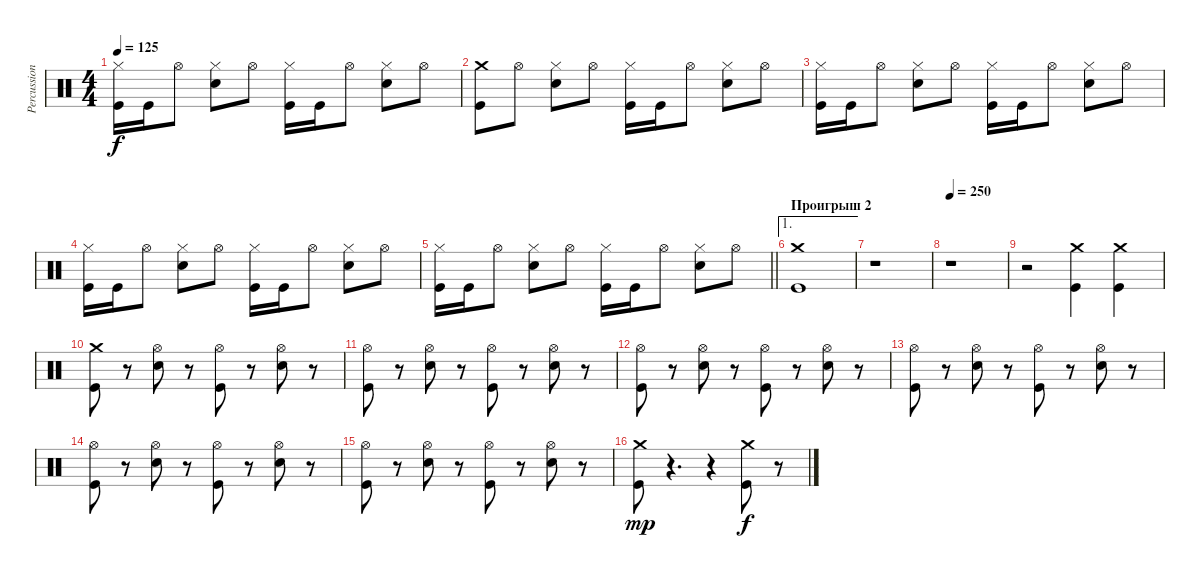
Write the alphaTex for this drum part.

\track ("Percussion" "Percussion") {instrument percussion}
\staff {score}
\articulation defaults
\ts (4 4)
\tempo 125
\clef neutral
\ks c
("Hi-Hat (closed)" "Kick (hit)").16{dy f} "Kick (hit)".16 "Hi-Hat (open)".8 ("Hi-Hat (closed)" "Electric Snare (hit)").8 "Hi-Hat (open)".8 ("Hi-Hat (closed)" "Kick (hit)").16 "Kick (hit)".16 "Hi-Hat (open)".8 ("Hi-Hat (closed)" "Electric Snare (hit)").8 "Hi-Hat (open)".8 |
("Crash medium (hit)" "Kick (hit)").8 "Hi-Hat (open)".8 ("Hi-Hat (closed)" "Electric Snare (hit)").8 "Hi-Hat (open)".8 ("Hi-Hat (closed)" "Kick (hit)").16 "Kick (hit)".16 "Hi-Hat (open)".8 ("Hi-Hat (closed)" "Electric Snare (hit)").8 "Hi-Hat (open)".8 |
("Hi-Hat (closed)" "Kick (hit)").16 "Kick (hit)".16 "Hi-Hat (open)".8 ("Hi-Hat (closed)" "Electric Snare (hit)").8 "Hi-Hat (open)".8 ("Hi-Hat (closed)" "Kick (hit)").16 "Kick (hit)".16 "Hi-Hat (open)".8 ("Hi-Hat (closed)" "Electric Snare (hit)").8 "Hi-Hat (open)".8 |
("Hi-Hat (closed)" "Kick (hit)").16 "Kick (hit)".16 "Hi-Hat (open)".8 ("Hi-Hat (closed)" "Electric Snare (hit)").8 "Hi-Hat (open)".8 ("Hi-Hat (closed)" "Kick (hit)").16 "Kick (hit)".16 "Hi-Hat (open)".8 ("Hi-Hat (closed)" "Electric Snare (hit)").8 "Hi-Hat (open)".8 |
\barLineRight lightlight
("Hi-Hat (closed)" "Kick (hit)").16 "Kick (hit)".16 "Hi-Hat (open)".8 ("Hi-Hat (closed)" "Electric Snare (hit)").8 "Hi-Hat (open)".8 ("Hi-Hat (closed)" "Kick (hit)").16 "Kick (hit)".16 "Hi-Hat (open)".8 ("Hi-Hat (closed)" "Electric Snare (hit)").8 "Hi-Hat (open)".8 |
\ae 1
\section ("" "Проигрыш 2")
("Crash medium (hit)" "Kick (hit)").1 |
r.1 |
\tempo 250
r.1 |
r.2 ("Crash medium (hit)" "Kick (hit)").4 ("Crash medium (hit)" "Kick (hit)").4 |
("Crash medium (hit)" "Kick (hit)").8 r.8 ("Hi-Hat (open)" "Electric Snare (hit)").8 r.8 ("Hi-Hat (open)" "Kick (hit)").8 r.8 ("Hi-Hat (open)" "Electric Snare (hit)").8 r.8 |
("Hi-Hat (open)" "Kick (hit)").8 r.8 ("Hi-Hat (open)" "Electric Snare (hit)").8 r.8 ("Hi-Hat (open)" "Kick (hit)").8 r.8 ("Hi-Hat (open)" "Electric Snare (hit)").8 r.8 |
("Hi-Hat (open)" "Kick (hit)").8 r.8 ("Hi-Hat (open)" "Electric Snare (hit)").8 r.8 ("Hi-Hat (open)" "Kick (hit)").8 r.8 ("Hi-Hat (open)" "Electric Snare (hit)").8 r.8 |
("Hi-Hat (open)" "Kick (hit)").8 r.8 ("Hi-Hat (open)" "Electric Snare (hit)").8 r.8 ("Hi-Hat (open)" "Kick (hit)").8 r.8 ("Hi-Hat (open)" "Electric Snare (hit)").8 r.8 |
("Hi-Hat (open)" "Kick (hit)").8 r.8 ("Hi-Hat (open)" "Electric Snare (hit)").8 r.8 ("Hi-Hat (open)" "Kick (hit)").8 r.8 ("Hi-Hat (open)" "Electric Snare (hit)").8 r.8 |
("Hi-Hat (open)" "Kick (hit)").8 r.8 ("Hi-Hat (open)" "Electric Snare (hit)").8 r.8 ("Hi-Hat (open)" "Kick (hit)").8 r.8 ("Hi-Hat (open)" "Electric Snare (hit)").8 r.8 |
("Crash medium (hit)" "Kick (hit)").8{dy mp} r.4{d} r.4 ("Crash medium (hit)" "Kick (hit)").8{dy f} r.8
